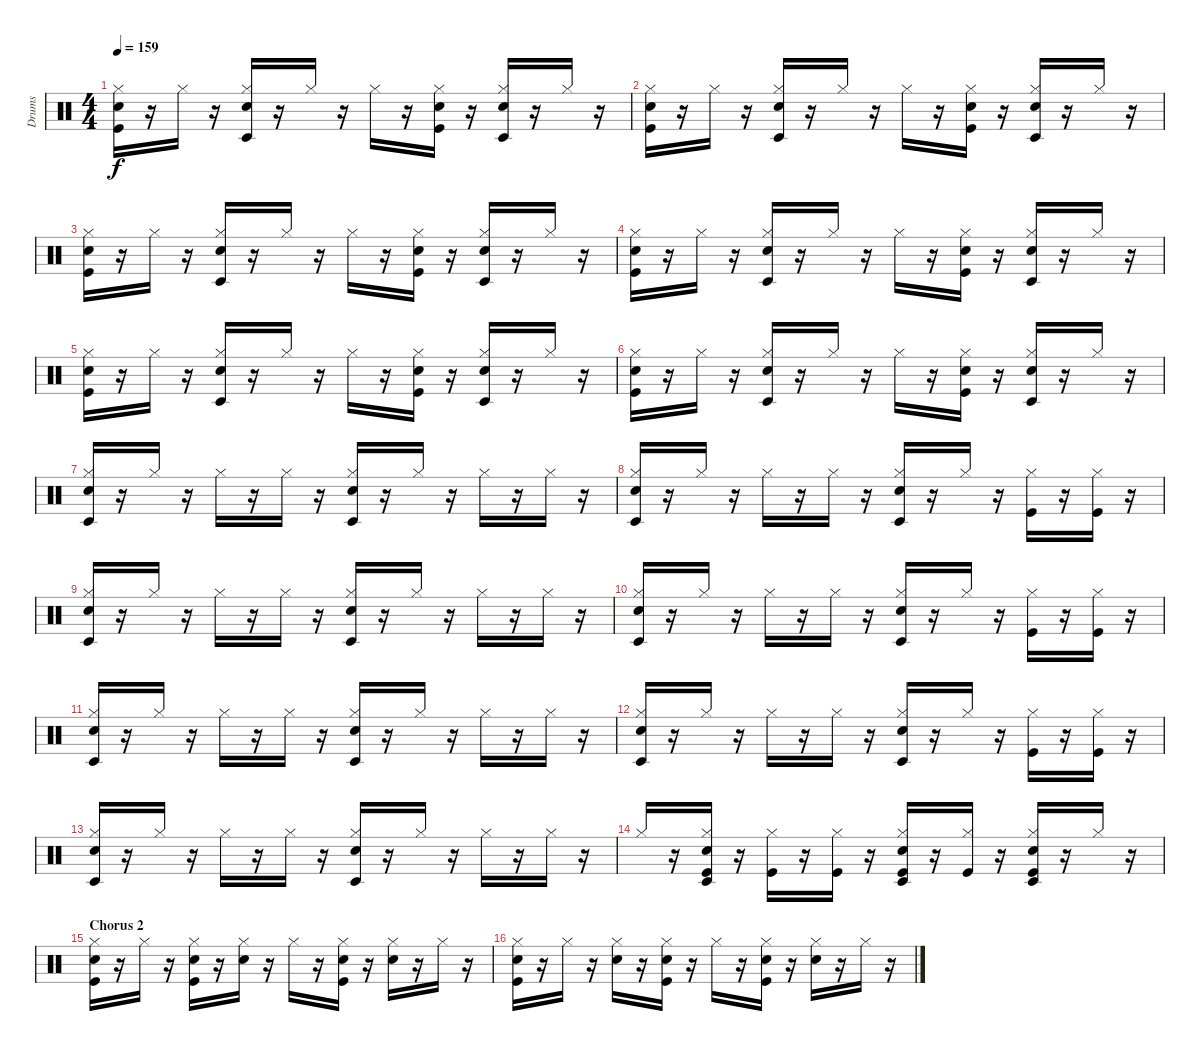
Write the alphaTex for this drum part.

\track ("Drums" "Drums") {instrument percussion}
\staff {score}
\articulation defaults
\ts (4 4)
\tempo 159
\clef neutral
\ks c
("Hi-Hat (closed)" "Snare (hit) 2" "Kick (hit)").16{dy f} r.16 "Hi-Hat (closed)".16 r.16 ("Hi-Hat (closed)" "Timbale low (hit)" "Snare (hit) 2").16 r.16 "Hi-Hat (closed)".16 r.16 "Hi-Hat (closed)".16 r.16 ("Hi-Hat (closed)" "Snare (hit) 2" "Kick (hit)").16 r.16 ("Hi-Hat (closed)" "Timbale low (hit)" "Snare (hit) 2").16 r.16 "Hi-Hat (closed)".16 r.16 |
("Hi-Hat (closed)" "Snare (hit) 2" "Kick (hit)").16 r.16 "Hi-Hat (closed)".16 r.16 ("Hi-Hat (closed)" "Timbale low (hit)" "Snare (hit) 2").16 r.16 "Hi-Hat (closed)".16 r.16 "Hi-Hat (closed)".16 r.16 ("Hi-Hat (closed)" "Snare (hit) 2" "Kick (hit)").16 r.16 ("Hi-Hat (closed)" "Timbale low (hit)" "Snare (hit) 2").16 r.16 "Hi-Hat (closed)".16 r.16 |
("Hi-Hat (closed)" "Snare (hit) 2" "Kick (hit)").16 r.16 "Hi-Hat (closed)".16 r.16 ("Hi-Hat (closed)" "Timbale low (hit)" "Snare (hit) 2").16 r.16 "Hi-Hat (closed)".16 r.16 "Hi-Hat (closed)".16 r.16 ("Hi-Hat (closed)" "Snare (hit) 2" "Kick (hit)").16 r.16 ("Hi-Hat (closed)" "Timbale low (hit)" "Snare (hit) 2").16 r.16 "Hi-Hat (closed)".16 r.16 |
("Hi-Hat (closed)" "Snare (hit) 2" "Kick (hit)").16 r.16 "Hi-Hat (closed)".16 r.16 ("Hi-Hat (closed)" "Timbale low (hit)" "Snare (hit) 2").16 r.16 "Hi-Hat (closed)".16 r.16 "Hi-Hat (closed)".16 r.16 ("Hi-Hat (closed)" "Snare (hit) 2" "Kick (hit)").16 r.16 ("Hi-Hat (closed)" "Timbale low (hit)" "Snare (hit) 2").16 r.16 "Hi-Hat (closed)".16 r.16 |
("Hi-Hat (closed)" "Snare (hit) 2" "Kick (hit)").16 r.16 "Hi-Hat (closed)".16 r.16 ("Hi-Hat (closed)" "Timbale low (hit)" "Snare (hit) 2").16 r.16 "Hi-Hat (closed)".16 r.16 "Hi-Hat (closed)".16 r.16 ("Hi-Hat (closed)" "Snare (hit) 2" "Kick (hit)").16 r.16 ("Hi-Hat (closed)" "Timbale low (hit)" "Snare (hit) 2").16 r.16 "Hi-Hat (closed)".16 r.16 |
("Hi-Hat (closed)" "Snare (hit) 2" "Kick (hit)").16 r.16 "Hi-Hat (closed)".16 r.16 ("Hi-Hat (closed)" "Timbale low (hit)" "Snare (hit) 2").16 r.16 "Hi-Hat (closed)".16 r.16 "Hi-Hat (closed)".16 r.16 ("Hi-Hat (closed)" "Snare (hit) 2" "Kick (hit)").16 r.16 ("Hi-Hat (closed)" "Timbale low (hit)" "Snare (hit) 2").16 r.16 "Hi-Hat (closed)".16 r.16 |
("Hi-Hat (closed)" "Timbale low (hit)" "Snare (hit) 2").16 r.16 "Hi-Hat (closed)".16 r.16 "Hi-Hat (closed)".16 r.16 "Hi-Hat (closed)".16 r.16 ("Hi-Hat (closed)" "Timbale low (hit)" "Snare (hit) 2").16 r.16 "Hi-Hat (closed)".16 r.16 "Hi-Hat (closed)".16 r.16 "Hi-Hat (closed)".16 r.16 |
("Hi-Hat (closed)" "Timbale low (hit)" "Snare (hit) 2").16 r.16 "Hi-Hat (closed)".16 r.16 "Hi-Hat (closed)".16 r.16 "Hi-Hat (closed)".16 r.16 ("Hi-Hat (closed)" "Timbale low (hit)" "Snare (hit) 2").16 r.16 "Hi-Hat (closed)".16 r.16 ("Hi-Hat (closed)" "Kick (hit)").16 r.16 ("Hi-Hat (closed)" "Kick (hit)").16 r.16 |
("Hi-Hat (closed)" "Timbale low (hit)" "Snare (hit) 2").16 r.16 "Hi-Hat (closed)".16 r.16 "Hi-Hat (closed)".16 r.16 "Hi-Hat (closed)".16 r.16 ("Hi-Hat (closed)" "Timbale low (hit)" "Snare (hit) 2").16 r.16 "Hi-Hat (closed)".16 r.16 "Hi-Hat (closed)".16 r.16 "Hi-Hat (closed)".16 r.16 |
("Hi-Hat (closed)" "Timbale low (hit)" "Snare (hit) 2").16 r.16 "Hi-Hat (closed)".16 r.16 "Hi-Hat (closed)".16 r.16 "Hi-Hat (closed)".16 r.16 ("Hi-Hat (closed)" "Timbale low (hit)" "Snare (hit) 2").16 r.16 "Hi-Hat (closed)".16 r.16 ("Hi-Hat (closed)" "Kick (hit)").16 r.16 ("Hi-Hat (closed)" "Kick (hit)").16 r.16 |
("Hi-Hat (closed)" "Timbale low (hit)" "Snare (hit) 2").16 r.16 "Hi-Hat (closed)".16 r.16 "Hi-Hat (closed)".16 r.16 "Hi-Hat (closed)".16 r.16 ("Hi-Hat (closed)" "Timbale low (hit)" "Snare (hit) 2").16 r.16 "Hi-Hat (closed)".16 r.16 "Hi-Hat (closed)".16 r.16 "Hi-Hat (closed)".16 r.16 |
("Hi-Hat (closed)" "Timbale low (hit)" "Snare (hit) 2").16 r.16 "Hi-Hat (closed)".16 r.16 "Hi-Hat (closed)".16 r.16 "Hi-Hat (closed)".16 r.16 ("Hi-Hat (closed)" "Timbale low (hit)" "Snare (hit) 2").16 r.16 "Hi-Hat (closed)".16 r.16 ("Hi-Hat (closed)" "Kick (hit)").16 r.16 ("Hi-Hat (closed)" "Kick (hit)").16 r.16 |
("Hi-Hat (closed)" "Timbale low (hit)" "Snare (hit) 2").16 r.16 "Hi-Hat (closed)".16 r.16 "Hi-Hat (closed)".16 r.16 "Hi-Hat (closed)".16 r.16 ("Hi-Hat (closed)" "Timbale low (hit)" "Snare (hit) 2").16 r.16 "Hi-Hat (closed)".16 r.16 "Hi-Hat (closed)".16 r.16 "Hi-Hat (closed)".16 r.16 |
"Hi-Hat (closed)".16 r.16 ("Hi-Hat (closed)" "Timbale low (hit)" "Snare (hit) 2" "Kick (hit)").16 r.16 ("Hi-Hat (closed)" "Kick (hit)").16 r.16 ("Hi-Hat (closed)" "Kick (hit)").16 r.16 ("Hi-Hat (closed)" "Timbale low (hit)" "Snare (hit) 2" "Kick (hit)").16 r.16 ("Hi-Hat (closed)" "Kick (hit)").16 r.16 ("Hi-Hat (closed)" "Timbale low (hit)" "Snare (hit) 2" "Kick (hit)").16 r.16 "Hi-Hat (closed)".16 r.16 |
\section ("" "Chorus 2")
("Hi-Hat (closed)" "Snare (hit) 2" "Kick (hit)").16 r.16 "Hi-Hat (closed)".16 r.16 ("Hi-Hat (closed)" "Snare (hit) 2" "Kick (hit)").16 r.16 ("Hi-Hat (closed)" "Snare (hit) 2").16 r.16 "Hi-Hat (closed)".16 r.16 ("Hi-Hat (closed)" "Snare (hit) 2" "Kick (hit)").16 r.16 ("Hi-Hat (closed)" "Snare (hit) 2").16 r.16 "Hi-Hat (closed)".16 r.16 |
("Hi-Hat (closed)" "Snare (hit) 2" "Kick (hit)").16 r.16 "Hi-Hat (closed)".16 r.16 ("Hi-Hat (closed)" "Snare (hit) 2").16 r.16 ("Hi-Hat (closed)" "Snare (hit) 2" "Kick (hit)").16 r.16 "Hi-Hat (closed)".16 r.16 ("Hi-Hat (closed)" "Snare (hit) 2" "Kick (hit)").16 r.16 ("Hi-Hat (closed)" "Snare (hit) 2").16 r.16 "Hi-Hat (closed)".16 r.16
